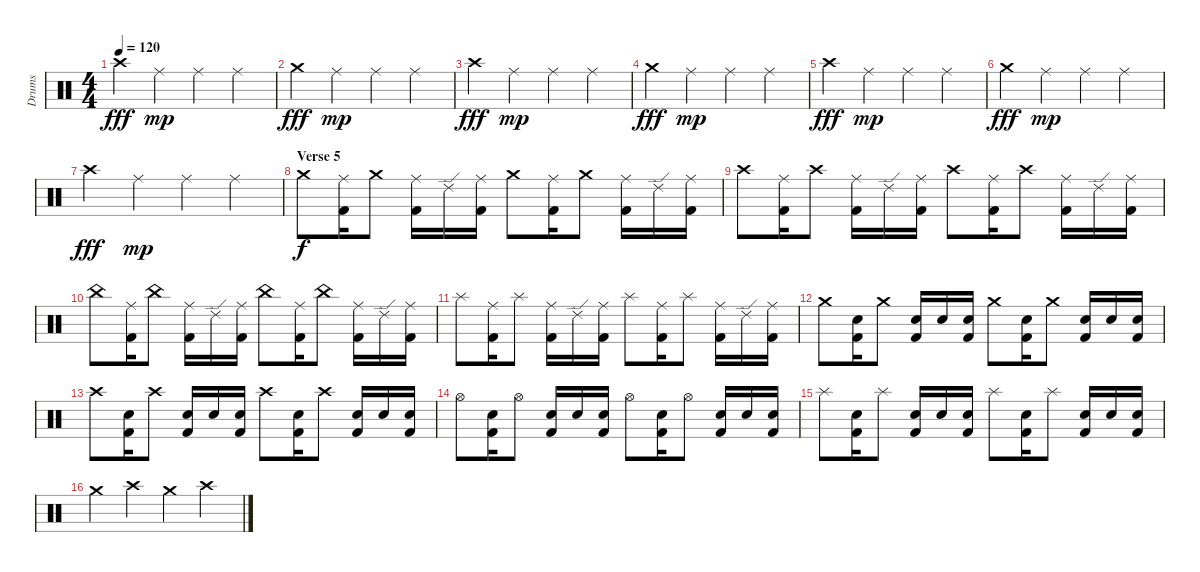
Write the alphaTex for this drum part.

\track ("Drums" "Drums") {instrument percussion}
\staff {score}
\articulation defaults
\ts (4 4)
\tempo 120
\clef neutral
\ks c "Crash high (hit)".4{dy fff} "Ride (middle)".4{dy mp} "Ride (middle)".4 "Ride (middle)".4
|
"Crash medium (hit)".4{dy fff} "Ride (middle)".4{dy mp} "Ride (middle)".4 "Ride (middle)".4 |
"Crash high (hit)".4{dy fff} "Ride (middle)".4{dy mp} "Ride (middle)".4 "Ride (middle)".4 |
"Crash medium (hit)".4{dy fff} "Ride (middle)".4{dy mp} "Ride (middle)".4 "Ride (middle)".4 |
"Crash high (hit)".4{dy fff} "Ride (middle)".4{dy mp} "Ride (middle)".4 "Ride (middle)".4 |
"Crash medium (hit)".4{dy fff} "Ride (middle)".4{dy mp} "Ride (middle)".4 "Ride (middle)".4 |
"Crash high (hit)".4{dy fff} "Ride (middle)".4{dy mp} "Ride (middle)".4 "Ride (middle)".4 |
\section ("" "Verse 5")
"Crash medium (hit)".8{dy f} ("Ride (middle)" "Kick (hit) 2").16 "Crash medium (hit)".8 ("Ride (middle)" "Kick (hit) 2").16 "Ride (edge) 2".16 ("Ride (middle)" "Kick (hit) 2").16 "Crash medium (hit)".8 ("Ride (middle)" "Kick (hit) 2").16 "Crash medium (hit)".8 ("Ride (middle)" "Kick (hit) 2").16 "Ride (edge) 2".16 ("Ride (middle)" "Kick (hit) 2").16 |
"Crash high (hit)".8 ("Ride (middle)" "Kick (hit) 2").16 "Crash high (hit)".8 ("Ride (middle)" "Kick (hit) 2").16 "Ride (edge) 2".16 ("Ride (middle)" "Kick (hit) 2").16 "Crash high (hit)".8 ("Ride (middle)" "Kick (hit) 2").16 "Crash high (hit)".8 ("Ride (middle)" "Kick (hit) 2").16 "Ride (edge) 2".16 ("Ride (middle)" "Kick (hit) 2").16 |
"China (hit)".8 ("Ride (middle)" "Kick (hit) 2").16 "China (hit)".8 ("Ride (middle)" "Kick (hit) 2").16 "Ride (edge) 2".16 ("Ride (middle)" "Kick (hit) 2").16 "China (hit)".8 ("Ride (middle)" "Kick (hit) 2").16 "China (hit)".8 ("Ride (middle)" "Kick (hit) 2").16 "Ride (edge) 2".16 ("Ride (middle)" "Kick (hit) 2").16 |
"Splash (hit)".8 ("Ride (middle)" "Kick (hit) 2").16 "Splash (hit)".8 ("Ride (middle)" "Kick (hit) 2").16 "Ride (edge) 2".16 ("Ride (middle)" "Kick (hit) 2").16 "Splash (hit)".8 ("Ride (middle)" "Kick (hit) 2").16 "Splash (hit)".8 ("Ride (middle)" "Kick (hit) 2").16 "Ride (edge) 2".16 ("Ride (middle)" "Kick (hit) 2").16 |
"Crash medium (hit)".8 ("Electric Snare (hit)" "Kick (hit) 2").16 "Crash medium (hit)".8 ("Electric Snare (hit)" "Kick (hit) 2").16 "Electric Snare (hit)".16 ("Electric Snare (hit)" "Kick (hit) 2").16 "Crash medium (hit)".8 ("Electric Snare (hit)" "Kick (hit) 2").16 "Crash medium (hit)".8 ("Electric Snare (hit)" "Kick (hit) 2").16 "Electric Snare (hit)".16 ("Electric Snare (hit)" "Kick (hit) 2").16 |
"Crash high (hit)".8 ("Electric Snare (hit)" "Kick (hit) 2").16 "Crash high (hit)".8 ("Electric Snare (hit)" "Kick (hit) 2").16 "Electric Snare (hit)".16 ("Electric Snare (hit)" "Kick (hit) 2").16 "Crash high (hit)".8 ("Electric Snare (hit)" "Kick (hit) 2").16 "Crash high (hit)".8 ("Electric Snare (hit)" "Kick (hit) 2").16 "Electric Snare (hit)".16 ("Electric Snare (hit)" "Kick (hit) 2").16 |
"Hi-Hat (open)".8 ("Electric Snare (hit)" "Kick (hit) 2").16 "Hi-Hat (open)".8 ("Electric Snare (hit)" "Kick (hit) 2").16 "Electric Snare (hit)".16 ("Electric Snare (hit)" "Kick (hit) 2").16 "Hi-Hat (open)".8 ("Electric Snare (hit)" "Kick (hit) 2").16 "Hi-Hat (open)".8 ("Electric Snare (hit)" "Kick (hit) 2").16 "Electric Snare (hit)".16 ("Electric Snare (hit)" "Kick (hit) 2").16 |
"Splash (hit)".8 ("Electric Snare (hit)" "Kick (hit) 2").16 "Splash (hit)".8 ("Electric Snare (hit)" "Kick (hit) 2").16 "Electric Snare (hit)".16 ("Electric Snare (hit)" "Kick (hit) 2").16 "Splash (hit)".8 ("Electric Snare (hit)" "Kick (hit) 2").16 "Splash (hit)".8 ("Electric Snare (hit)" "Kick (hit) 2").16 "Electric Snare (hit)".16 ("Electric Snare (hit)" "Kick (hit) 2").16 |
"Crash medium (hit)".4 "Crash high (hit)".4 "Crash medium (hit)".4 "Crash high (hit)".4
